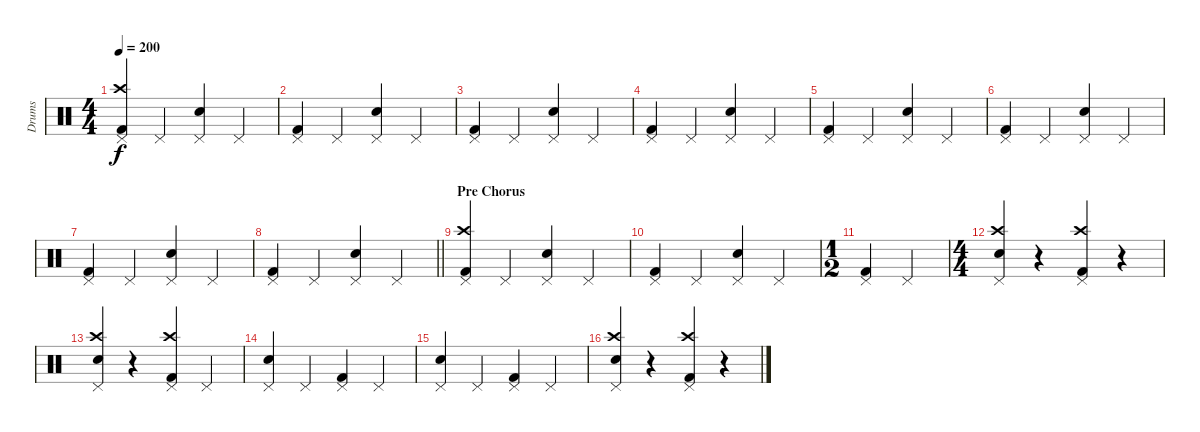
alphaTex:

\track ("Drums" "Drums") {instrument percussion}
\staff {score}
\articulation defaults
\ts (4 4)
\tempo 200
\clef neutral
\ks c
("Pedal Hi-Hat (hit)" "Crash high (hit)" "Kick (hit) 2").4{dy f} "Pedal Hi-Hat (hit)".4 ("Pedal Hi-Hat (hit)" "Snare (hit) 2").4 "Pedal Hi-Hat (hit)".4 |
("Pedal Hi-Hat (hit)" "Kick (hit) 2").4 "Pedal Hi-Hat (hit)".4 ("Pedal Hi-Hat (hit)" "Snare (hit) 2").4 "Pedal Hi-Hat (hit)".4 |
("Pedal Hi-Hat (hit)" "Kick (hit) 2").4 "Pedal Hi-Hat (hit)".4 ("Pedal Hi-Hat (hit)" "Snare (hit) 2").4 "Pedal Hi-Hat (hit)".4 |
("Pedal Hi-Hat (hit)" "Kick (hit) 2").4 "Pedal Hi-Hat (hit)".4 ("Pedal Hi-Hat (hit)" "Snare (hit) 2").4 "Pedal Hi-Hat (hit)".4 |
("Pedal Hi-Hat (hit)" "Kick (hit) 2").4 "Pedal Hi-Hat (hit)".4 ("Pedal Hi-Hat (hit)" "Snare (hit) 2").4 "Pedal Hi-Hat (hit)".4 |
("Pedal Hi-Hat (hit)" "Kick (hit) 2").4 "Pedal Hi-Hat (hit)".4 ("Pedal Hi-Hat (hit)" "Snare (hit) 2").4 "Pedal Hi-Hat (hit)".4 |
("Pedal Hi-Hat (hit)" "Kick (hit) 2").4 "Pedal Hi-Hat (hit)".4 ("Pedal Hi-Hat (hit)" "Snare (hit) 2").4 "Pedal Hi-Hat (hit)".4 |
\barLineRight lightlight
("Pedal Hi-Hat (hit)" "Kick (hit) 2").4 "Pedal Hi-Hat (hit)".4 ("Pedal Hi-Hat (hit)" "Snare (hit) 2").4 "Pedal Hi-Hat (hit)".4 |
\section ("" "Pre Chorus")
("Pedal Hi-Hat (hit)" "Crash high (hit)" "Kick (hit) 2").4 "Pedal Hi-Hat (hit)".4 ("Pedal Hi-Hat (hit)" "Snare (hit) 2").4 "Pedal Hi-Hat (hit)".4 |
("Pedal Hi-Hat (hit)" "Kick (hit) 2").4 "Pedal Hi-Hat (hit)".4 ("Pedal Hi-Hat (hit)" "Snare (hit) 2").4 "Pedal Hi-Hat (hit)".4 |
\ts (1 2)
("Pedal Hi-Hat (hit)" "Kick (hit) 2").4 "Pedal Hi-Hat (hit)".4 |
\ts (4 4)
("Pedal Hi-Hat (hit)" "Crash high (hit)" "Snare (hit) 2").4 r.4 ("Pedal Hi-Hat (hit)" "Crash high (hit)" "Kick (hit) 2").4 r.4 |
("Pedal Hi-Hat (hit)" "Crash high (hit)" "Snare (hit) 2").4 r.4 ("Pedal Hi-Hat (hit)" "Crash high (hit)" "Kick (hit) 2").4 "Pedal Hi-Hat (hit)".4 |
("Pedal Hi-Hat (hit)" "Snare (hit) 2").4 "Pedal Hi-Hat (hit)".4 ("Pedal Hi-Hat (hit)" "Kick (hit) 2").4 "Pedal Hi-Hat (hit)".4 |
("Pedal Hi-Hat (hit)" "Snare (hit) 2").4 "Pedal Hi-Hat (hit)".4 ("Pedal Hi-Hat (hit)" "Kick (hit) 2").4 "Pedal Hi-Hat (hit)".4 |
("Pedal Hi-Hat (hit)" "Crash high (hit)" "Snare (hit) 2").4 r.4 ("Pedal Hi-Hat (hit)" "Crash high (hit)" "Kick (hit) 2").4 r.4
